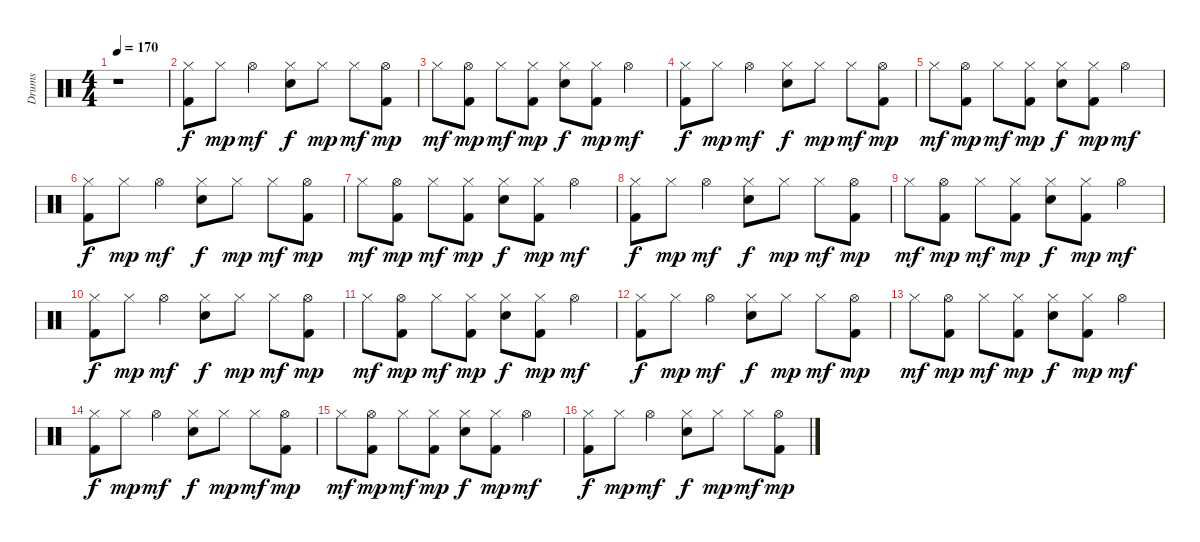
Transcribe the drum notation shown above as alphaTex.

\track ("Drums" "Drums") {instrument percussion}
\staff {score}
\articulation defaults
\ts (4 4)
\tempo 170
\clef neutral
\ks c
r.1{dy f} |
("Hi-Hat (closed)" "Kick (hit) 2").8 "Hi-Hat (closed)".8{dy mp} "Hi-Hat (open)".4{dy mf} ("Hi-Hat (closed)" "Electric Snare (hit)").8{dy f} "Hi-Hat (closed)".8{dy mp} "Hi-Hat (closed)".8{dy mf} ("Hi-Hat (open)" "Kick (hit) 2").8{dy mp} |
"Hi-Hat (closed)".8{dy mf} ("Hi-Hat (open)" "Kick (hit) 2").8{dy mp} "Hi-Hat (closed)".8{dy mf} ("Hi-Hat (closed)" "Kick (hit) 2").8{dy mp} ("Hi-Hat (closed)" "Electric Snare (hit)").8{dy f} ("Hi-Hat (closed)" "Kick (hit) 2").8{dy mp} "Hi-Hat (open)".4{dy mf} |
("Hi-Hat (closed)" "Kick (hit) 2").8{dy f} "Hi-Hat (closed)".8{dy mp} "Hi-Hat (open)".4{dy mf} ("Hi-Hat (closed)" "Electric Snare (hit)").8{dy f} "Hi-Hat (closed)".8{dy mp} "Hi-Hat (closed)".8{dy mf} ("Hi-Hat (open)" "Kick (hit) 2").8{dy mp} |
"Hi-Hat (closed)".8{dy mf} ("Hi-Hat (open)" "Kick (hit) 2").8{dy mp} "Hi-Hat (closed)".8{dy mf} ("Hi-Hat (closed)" "Kick (hit) 2").8{dy mp} ("Hi-Hat (closed)" "Electric Snare (hit)").8{dy f} ("Hi-Hat (closed)" "Kick (hit) 2").8{dy mp} "Hi-Hat (open)".4{dy mf} |
("Hi-Hat (closed)" "Kick (hit) 2").8{dy f} "Hi-Hat (closed)".8{dy mp} "Hi-Hat (open)".4{dy mf} ("Hi-Hat (closed)" "Electric Snare (hit)").8{dy f} "Hi-Hat (closed)".8{dy mp} "Hi-Hat (closed)".8{dy mf} ("Hi-Hat (open)" "Kick (hit) 2").8{dy mp} |
"Hi-Hat (closed)".8{dy mf} ("Hi-Hat (open)" "Kick (hit) 2").8{dy mp} "Hi-Hat (closed)".8{dy mf} ("Hi-Hat (closed)" "Kick (hit) 2").8{dy mp} ("Hi-Hat (closed)" "Electric Snare (hit)").8{dy f} ("Hi-Hat (closed)" "Kick (hit) 2").8{dy mp} "Hi-Hat (open)".4{dy mf} |
("Hi-Hat (closed)" "Kick (hit) 2").8{dy f} "Hi-Hat (closed)".8{dy mp} "Hi-Hat (open)".4{dy mf} ("Hi-Hat (closed)" "Electric Snare (hit)").8{dy f} "Hi-Hat (closed)".8{dy mp} "Hi-Hat (closed)".8{dy mf} ("Hi-Hat (open)" "Kick (hit) 2").8{dy mp} |
"Hi-Hat (closed)".8{dy mf} ("Hi-Hat (open)" "Kick (hit) 2").8{dy mp} "Hi-Hat (closed)".8{dy mf} ("Hi-Hat (closed)" "Kick (hit) 2").8{dy mp} ("Hi-Hat (closed)" "Electric Snare (hit)").8{dy f} ("Hi-Hat (closed)" "Kick (hit) 2").8{dy mp} "Hi-Hat (open)".4{dy mf} |
("Hi-Hat (closed)" "Kick (hit) 2").8{dy f} "Hi-Hat (closed)".8{dy mp} "Hi-Hat (open)".4{dy mf} ("Hi-Hat (closed)" "Electric Snare (hit)").8{dy f} "Hi-Hat (closed)".8{dy mp} "Hi-Hat (closed)".8{dy mf} ("Hi-Hat (open)" "Kick (hit) 2").8{dy mp} |
"Hi-Hat (closed)".8{dy mf} ("Hi-Hat (open)" "Kick (hit) 2").8{dy mp} "Hi-Hat (closed)".8{dy mf} ("Hi-Hat (closed)" "Kick (hit) 2").8{dy mp} ("Hi-Hat (closed)" "Electric Snare (hit)").8{dy f} ("Hi-Hat (closed)" "Kick (hit) 2").8{dy mp} "Hi-Hat (open)".4{dy mf} |
("Hi-Hat (closed)" "Kick (hit) 2").8{dy f} "Hi-Hat (closed)".8{dy mp} "Hi-Hat (open)".4{dy mf} ("Hi-Hat (closed)" "Electric Snare (hit)").8{dy f} "Hi-Hat (closed)".8{dy mp} "Hi-Hat (closed)".8{dy mf} ("Hi-Hat (open)" "Kick (hit) 2").8{dy mp} |
"Hi-Hat (closed)".8{dy mf} ("Hi-Hat (open)" "Kick (hit) 2").8{dy mp} "Hi-Hat (closed)".8{dy mf} ("Hi-Hat (closed)" "Kick (hit) 2").8{dy mp} ("Hi-Hat (closed)" "Electric Snare (hit)").8{dy f} ("Hi-Hat (closed)" "Kick (hit) 2").8{dy mp} "Hi-Hat (open)".4{dy mf} |
("Hi-Hat (closed)" "Kick (hit) 2").8{dy f} "Hi-Hat (closed)".8{dy mp} "Hi-Hat (open)".4{dy mf} ("Hi-Hat (closed)" "Electric Snare (hit)").8{dy f} "Hi-Hat (closed)".8{dy mp} "Hi-Hat (closed)".8{dy mf} ("Hi-Hat (open)" "Kick (hit) 2").8{dy mp} |
"Hi-Hat (closed)".8{dy mf} ("Hi-Hat (open)" "Kick (hit) 2").8{dy mp} "Hi-Hat (closed)".8{dy mf} ("Hi-Hat (closed)" "Kick (hit) 2").8{dy mp} ("Hi-Hat (closed)" "Electric Snare (hit)").8{dy f} ("Hi-Hat (closed)" "Kick (hit) 2").8{dy mp} "Hi-Hat (open)".4{dy mf} |
("Hi-Hat (closed)" "Kick (hit) 2").8{dy f} "Hi-Hat (closed)".8{dy mp} "Hi-Hat (open)".4{dy mf} ("Hi-Hat (closed)" "Electric Snare (hit)").8{dy f} "Hi-Hat (closed)".8{dy mp} "Hi-Hat (closed)".8{dy mf} ("Hi-Hat (open)" "Kick (hit) 2").8{dy mp}
